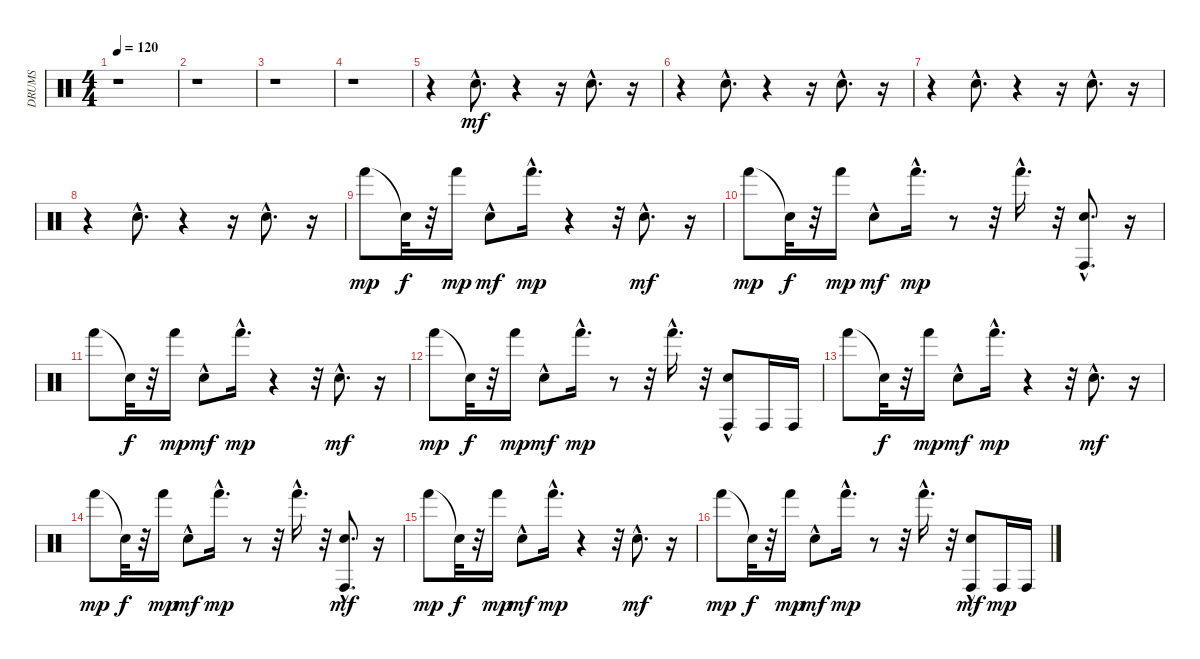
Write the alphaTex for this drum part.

\track ("DRUMS" "DRUMS") {instrument percussion}
\staff {score}
\articulation defaults
\ts (4 4)
\tempo 120
\clef neutral
\ks c
r.1{dy mf} |
r.1 |
r.1 |
r.1 |
r.4 "Hand Clap (hit)"{hac}.8{d} r.4 r.16 "Hand Clap (hit)"{hac}.8{d} r.16 |
r.4 "Hand Clap (hit)"{hac}.8{d} r.4 r.16 "Hand Clap (hit)"{hac}.8{d} r.16 |
r.4 "Hand Clap (hit)"{hac}.8{d} r.4 r.16 "Hand Clap (hit)"{hac}.8{d} r.16 |
r.4 "Hand Clap (hit)"{hac}.8{d} r.4 r.16 "Hand Clap (hit)"{hac}.8{d} r.16 |
"Hand (hit)".8{dy mp} "Snare (hit)"{t}.32{dy f} r.32 "Hand (hit)".16{dy mp} "Hand Clap (hit)"{hac}.8{dy mf} "Hand (hit)"{hac}.16{d dy mp} r.4 r.32 "Hand Clap (hit)"{hac}.8{d dy mf} r.16 |
"Hand (hit)".8{dy mp} "Snare (hit)"{t}.32{dy f} r.32 "Hand (hit)".16{dy mp} "Hand Clap (hit)"{hac}.8{dy mf} "Hand (hit)"{hac}.16{d dy mp} r.8 r.32 "Hand (hit)"{hac}.16{d} r.32 ("Hand Clap (hit)"{hac} "Conga high (hit)"{hac}).8{d} r.16 |
"Hand (hit)".8 "Snare (hit)"{t}.32{dy f} r.32 "Hand (hit)".16{dy mp} "Hand Clap (hit)"{hac}.8{dy mf} "Hand (hit)"{hac}.16{d dy mp} r.4 r.32 "Hand Clap (hit)"{hac}.8{d dy mf} r.16 |
"Hand (hit)".8{dy mp} "Snare (hit)"{t}.32{dy f} r.32 "Hand (hit)".16{dy mp} "Hand Clap (hit)"{hac}.8{dy mf} "Hand (hit)"{hac}.16{d dy mp} r.8 r.32 "Hand (hit)"{hac}.16{d} r.32 ("Hand Clap (hit)"{hac} "Conga high (hit)"{hac}).8 "Conga high (hit)".16 "Conga high (hit)".16 |
"Hand (hit)".8 "Snare (hit)"{t}.32{dy f} r.32 "Hand (hit)".16{dy mp} "Hand Clap (hit)"{hac}.8{dy mf} "Hand (hit)"{hac}.16{d dy mp} r.4 r.32 "Hand Clap (hit)"{hac}.8{d dy mf} r.16 |
"Hand (hit)".8{dy mp} "Snare (hit)"{t}.32{dy f} r.32 "Hand (hit)".16{dy mp} "Hand Clap (hit)"{hac}.8{dy mf} "Hand (hit)"{hac}.16{d dy mp} r.8 r.32 "Hand (hit)"{hac}.16{d} r.32 ("Conga high (hit)"{hac} "Hand Clap (hit)"{hac}).8{d dy mf} r.16 |
"Hand (hit)".8{dy mp} "Snare (hit)"{t}.32{dy f} r.32 "Hand (hit)".16{dy mp} "Hand Clap (hit)"{hac}.8{dy mf} "Hand (hit)"{hac}.16{d dy mp} r.4 r.32 "Hand Clap (hit)"{hac}.8{d dy mf} r.16 |
"Hand (hit)".8{dy mp} "Snare (hit)"{t}.32{dy f} r.32 "Hand (hit)".16{dy mp} "Hand Clap (hit)"{hac}.8{dy mf} "Hand (hit)"{hac}.16{d dy mp} r.8 r.32 "Hand (hit)"{hac}.16{d} r.32 ("Conga high (hit)"{hac} "Hand Clap (hit)"{hac}).8{dy mf} "Conga high (hit)".16{dy mp} "Conga high (hit)".16
